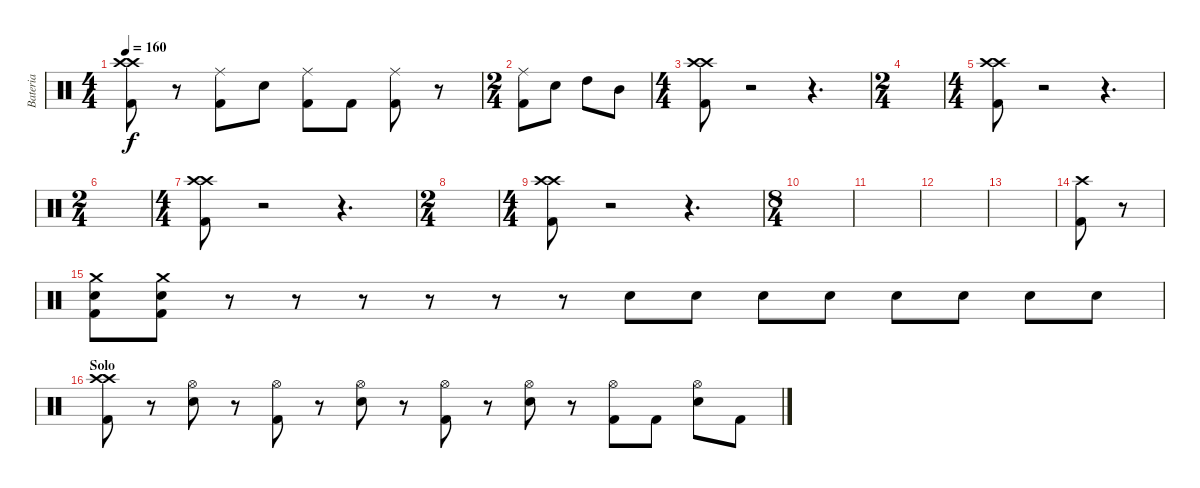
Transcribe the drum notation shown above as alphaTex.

\track ("Bateria" "Bateria") {instrument percussion}
\staff {score}
\articulation defaults
\ts (4 4)
\tempo 160
\clef neutral
\ks c
("Crash high (hit)" "Crash high (hit)" "Kick (hit) 2").8{dy f} r.8 ("Ride (middle)" "Kick (hit) 2").8 "Snare (hit) 2".8 ("Ride (middle)" "Kick (hit) 2").8 "Kick (hit) 2".8 ("Ride (middle)" "Kick (hit) 2").8 r.8 |
\ts (2 4)
("Ride (middle)" "Kick (hit) 2").8 "Snare (hit) 2".8 "High Tom (hit)".8 "Mid Tom (hit)".8 |
\ts (4 4)
("Crash high (hit)" "Crash high (hit)" "Kick (hit) 2").8 r.2 r.4{d} |
\ts (2 4)
|
\ts (4 4)
("Crash high (hit)" "Crash high (hit)" "Kick (hit) 2").8 r.2 r.4{d} |
\ts (2 4)
|
\ts (4 4)
("Crash high (hit)" "Crash high (hit)" "Kick (hit) 2").8 r.2 r.4{d} |
\ts (2 4)
|
\ts (4 4)
("Crash high (hit)" "Crash high (hit)" "Kick (hit) 2").8 r.2 r.4{d} |
\ts (8 4)
|
|
|
|
("Crash high (hit)" "Kick (hit) 2").8 r.8 |
("Crash medium (hit)" "Snare (hit) 2" "Kick (hit) 2").8 ("Crash medium (hit)" "Snare (hit) 2" "Kick (hit) 2").8 r.8 r.8 r.8 r.8 r.8 r.8 "Snare (hit) 2".8 "Snare (hit) 2".8 "Snare (hit) 2".8 "Snare (hit) 2".8 "Snare (hit) 2".8 "Snare (hit) 2".8 "Snare (hit) 2".8 "Snare (hit) 2".8 |
\section ("" "Solo")
("Crash high (hit)" "Crash high (hit)" "Kick (hit) 2").8 r.8 ("Hi-Hat (open)" "Snare (hit) 2").8 r.8 ("Hi-Hat (open)" "Kick (hit) 2").8 r.8 ("Hi-Hat (open)" "Snare (hit) 2").8 r.8 ("Hi-Hat (open)" "Kick (hit) 2").8 r.8 ("Hi-Hat (open)" "Snare (hit) 2").8 r.8 ("Hi-Hat (open)" "Kick (hit) 2").8 "Kick (hit) 2".8 ("Hi-Hat (open)" "Snare (hit) 2").8 "Kick (hit) 2".8
